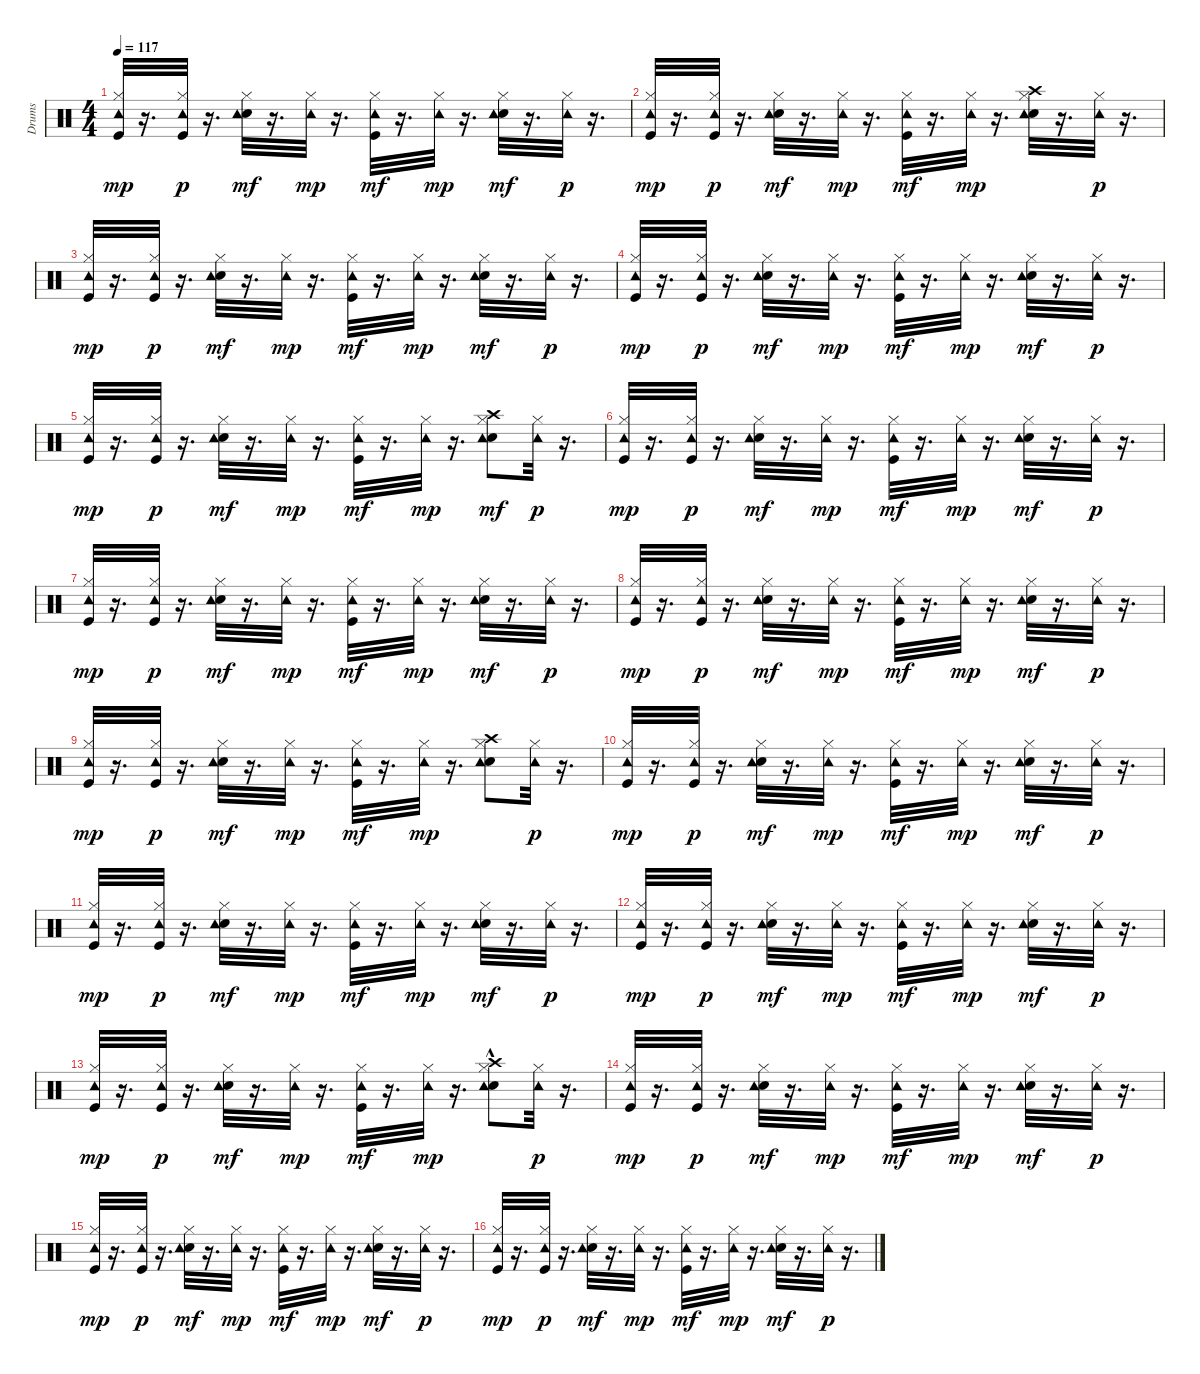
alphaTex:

\track ("Drums" "Drums") {instrument percussion}
\staff {score}
\articulation defaults
\ts (4 4)
\tempo 117
\clef neutral
\ks c
("Kick (hit)" "Hi-Hat (closed)" "Tambourine (hit)").32{dy mp} r.16{d} ("Kick (hit)" "Hi-Hat (closed)" "Tambourine (hit)").32{dy p} r.16{d} ("Electric Snare (hit)" "Hi-Hat (closed)" "Tambourine (hit)").32{dy mf} r.16{d} ("Hi-Hat (closed)" "Tambourine (hit)").32{dy mp} r.16{d} ("Kick (hit)" "Hi-Hat (closed)" "Tambourine (hit)").32{dy mf} r.16{d} ("Hi-Hat (closed)" "Tambourine (hit)").32{dy mp} r.16{d} ("Electric Snare (hit)" "Hi-Hat (closed)" "Tambourine (hit)").32{dy mf} r.16{d} ("Hi-Hat (closed)" "Tambourine (hit)").32{dy p} r.16{d} |
("Kick (hit)" "Hi-Hat (closed)" "Tambourine (hit)").32{dy mp} r.16{d} ("Kick (hit)" "Hi-Hat (closed)" "Tambourine (hit)").32{dy p} r.16{d} ("Electric Snare (hit)" "Hi-Hat (closed)" "Tambourine (hit)").32{dy mf} r.16{d} ("Hi-Hat (closed)" "Tambourine (hit)").32{dy mp} r.16{d} ("Kick (hit)" "Hi-Hat (closed)" "Tambourine (hit)").32{dy mf} r.16{d} ("Hi-Hat (closed)" "Tambourine (hit)").32{dy mp} r.16{d} ("Electric Snare (hit)" "Hi-Hat (closed)" "Tambourine (hit)" "Crash high (hit)").32 r.16{d} ("Hi-Hat (closed)" "Tambourine (hit)").32{dy p} r.16{d} |
("Kick (hit)" "Hi-Hat (closed)" "Tambourine (hit)").32{dy mp} r.16{d} ("Kick (hit)" "Hi-Hat (closed)" "Tambourine (hit)").32{dy p} r.16{d} ("Electric Snare (hit)" "Hi-Hat (closed)" "Tambourine (hit)").32{dy mf} r.16{d} ("Hi-Hat (closed)" "Tambourine (hit)").32{dy mp} r.16{d} ("Kick (hit)" "Hi-Hat (closed)" "Tambourine (hit)").32{dy mf} r.16{d} ("Hi-Hat (closed)" "Tambourine (hit)").32{dy mp} r.16{d} ("Electric Snare (hit)" "Hi-Hat (closed)" "Tambourine (hit)").32{dy mf} r.16{d} ("Hi-Hat (closed)" "Tambourine (hit)").32{dy p} r.16{d} |
("Kick (hit)" "Hi-Hat (closed)" "Tambourine (hit)").32{dy mp} r.16{d} ("Kick (hit)" "Hi-Hat (closed)" "Tambourine (hit)").32{dy p} r.16{d} ("Electric Snare (hit)" "Hi-Hat (closed)" "Tambourine (hit)").32{dy mf} r.16{d} ("Hi-Hat (closed)" "Tambourine (hit)").32{dy mp} r.16{d} ("Kick (hit)" "Hi-Hat (closed)" "Tambourine (hit)").32{dy mf} r.16{d} ("Hi-Hat (closed)" "Tambourine (hit)").32{dy mp} r.16{d} ("Electric Snare (hit)" "Hi-Hat (closed)" "Tambourine (hit)").32{dy mf} r.16{d} ("Hi-Hat (closed)" "Tambourine (hit)").32{dy p} r.16{d} |
("Kick (hit)" "Hi-Hat (closed)" "Tambourine (hit)").32{dy mp} r.16{d} ("Kick (hit)" "Hi-Hat (closed)" "Tambourine (hit)").32{dy p} r.16{d} ("Electric Snare (hit)" "Hi-Hat (closed)" "Tambourine (hit)").32{dy mf} r.16{d} ("Hi-Hat (closed)" "Tambourine (hit)").32{dy mp} r.16{d} ("Kick (hit)" "Hi-Hat (closed)" "Tambourine (hit)").32{dy mf} r.16{d} ("Hi-Hat (closed)" "Tambourine (hit)").32{dy mp} r.16{d} ("Electric Snare (hit)" "Hi-Hat (closed)" "Tambourine (hit)" "Crash high (hit)").8{dy mf} ("Hi-Hat (closed)" "Tambourine (hit)").32{dy p} r.16{d} |
("Kick (hit)" "Hi-Hat (closed)" "Tambourine (hit)").32{dy mp} r.16{d} ("Kick (hit)" "Hi-Hat (closed)" "Tambourine (hit)").32{dy p} r.16{d} ("Electric Snare (hit)" "Hi-Hat (closed)" "Tambourine (hit)").32{dy mf} r.16{d} ("Hi-Hat (closed)" "Tambourine (hit)").32{dy mp} r.16{d} ("Kick (hit)" "Hi-Hat (closed)" "Tambourine (hit)").32{dy mf} r.16{d} ("Hi-Hat (closed)" "Tambourine (hit)").32{dy mp} r.16{d} ("Electric Snare (hit)" "Hi-Hat (closed)" "Tambourine (hit)").32{dy mf} r.16{d} ("Hi-Hat (closed)" "Tambourine (hit)").32{dy p} r.16{d} |
("Kick (hit)" "Hi-Hat (closed)" "Tambourine (hit)").32{dy mp} r.16{d} ("Kick (hit)" "Hi-Hat (closed)" "Tambourine (hit)").32{dy p} r.16{d} ("Electric Snare (hit)" "Hi-Hat (closed)" "Tambourine (hit)").32{dy mf} r.16{d} ("Hi-Hat (closed)" "Tambourine (hit)").32{dy mp} r.16{d} ("Kick (hit)" "Hi-Hat (closed)" "Tambourine (hit)").32{dy mf} r.16{d} ("Hi-Hat (closed)" "Tambourine (hit)").32{dy mp} r.16{d} ("Electric Snare (hit)" "Hi-Hat (closed)" "Tambourine (hit)").32{dy mf} r.16{d} ("Hi-Hat (closed)" "Tambourine (hit)").32{dy p} r.16{d} |
("Kick (hit)" "Hi-Hat (closed)" "Tambourine (hit)").32{dy mp} r.16{d} ("Kick (hit)" "Hi-Hat (closed)" "Tambourine (hit)").32{dy p} r.16{d} ("Electric Snare (hit)" "Hi-Hat (closed)" "Tambourine (hit)").32{dy mf} r.16{d} ("Hi-Hat (closed)" "Tambourine (hit)").32{dy mp} r.16{d} ("Kick (hit)" "Hi-Hat (closed)" "Tambourine (hit)").32{dy mf} r.16{d} ("Hi-Hat (closed)" "Tambourine (hit)").32{dy mp} r.16{d} ("Electric Snare (hit)" "Hi-Hat (closed)" "Tambourine (hit)").32{dy mf} r.16{d} ("Hi-Hat (closed)" "Tambourine (hit)").32{dy p} r.16{d} |
("Kick (hit)" "Hi-Hat (closed)" "Tambourine (hit)").32{dy mp} r.16{d} ("Kick (hit)" "Hi-Hat (closed)" "Tambourine (hit)").32{dy p} r.16{d} ("Electric Snare (hit)" "Hi-Hat (closed)" "Tambourine (hit)").32{dy mf} r.16{d} ("Hi-Hat (closed)" "Tambourine (hit)").32{dy mp} r.16{d} ("Kick (hit)" "Hi-Hat (closed)" "Tambourine (hit)").32{dy mf} r.16{d} ("Hi-Hat (closed)" "Tambourine (hit)").32{dy mp} r.16{d} ("Electric Snare (hit)" "Hi-Hat (closed)" "Tambourine (hit)" "Crash high (hit)").8 ("Hi-Hat (closed)" "Tambourine (hit)").32{dy p} r.16{d} |
("Kick (hit)" "Hi-Hat (closed)" "Tambourine (hit)").32{dy mp} r.16{d} ("Kick (hit)" "Hi-Hat (closed)" "Tambourine (hit)").32{dy p} r.16{d} ("Electric Snare (hit)" "Hi-Hat (closed)" "Tambourine (hit)").32{dy mf} r.16{d} ("Hi-Hat (closed)" "Tambourine (hit)").32{dy mp} r.16{d} ("Kick (hit)" "Hi-Hat (closed)" "Tambourine (hit)").32{dy mf} r.16{d} ("Hi-Hat (closed)" "Tambourine (hit)").32{dy mp} r.16{d} ("Electric Snare (hit)" "Hi-Hat (closed)" "Tambourine (hit)").32{dy mf} r.16{d} ("Hi-Hat (closed)" "Tambourine (hit)").32{dy p} r.16{d} |
("Kick (hit)" "Hi-Hat (closed)" "Tambourine (hit)").32{dy mp} r.16{d} ("Kick (hit)" "Hi-Hat (closed)" "Tambourine (hit)").32{dy p} r.16{d} ("Electric Snare (hit)" "Hi-Hat (closed)" "Tambourine (hit)").32{dy mf} r.16{d} ("Hi-Hat (closed)" "Tambourine (hit)").32{dy mp} r.16{d} ("Kick (hit)" "Hi-Hat (closed)" "Tambourine (hit)").32{dy mf} r.16{d} ("Hi-Hat (closed)" "Tambourine (hit)").32{dy mp} r.16{d} ("Electric Snare (hit)" "Hi-Hat (closed)" "Tambourine (hit)").32{dy mf} r.16{d} ("Hi-Hat (closed)" "Tambourine (hit)").32{dy p} r.16{d} |
("Kick (hit)" "Hi-Hat (closed)" "Tambourine (hit)").32{dy mp} r.16{d} ("Kick (hit)" "Hi-Hat (closed)" "Tambourine (hit)").32{dy p} r.16{d} ("Electric Snare (hit)" "Hi-Hat (closed)" "Tambourine (hit)").32{dy mf} r.16{d} ("Hi-Hat (closed)" "Tambourine (hit)").32{dy mp} r.16{d} ("Kick (hit)" "Hi-Hat (closed)" "Tambourine (hit)").32{dy mf} r.16{d} ("Hi-Hat (closed)" "Tambourine (hit)").32{dy mp} r.16{d} ("Electric Snare (hit)" "Hi-Hat (closed)" "Tambourine (hit)").32{dy mf} r.16{d} ("Hi-Hat (closed)" "Tambourine (hit)").32{dy p} r.16{d} |
("Kick (hit)" "Hi-Hat (closed)" "Tambourine (hit)").32{dy mp} r.16{d} ("Kick (hit)" "Hi-Hat (closed)" "Tambourine (hit)").32{dy p} r.16{d} ("Electric Snare (hit)" "Hi-Hat (closed)" "Tambourine (hit)").32{dy mf} r.16{d} ("Hi-Hat (closed)" "Tambourine (hit)").32{dy mp} r.16{d} ("Kick (hit)" "Hi-Hat (closed)" "Tambourine (hit)").32{dy mf} r.16{d} ("Hi-Hat (closed)" "Tambourine (hit)").32{dy mp} r.16{d} ("Electric Snare (hit)" "Hi-Hat (closed)" "Tambourine (hit)" "Crash high (hit)"{hac}).8 ("Hi-Hat (closed)" "Tambourine (hit)").32{dy p} r.16{d} |
("Kick (hit)" "Hi-Hat (closed)" "Tambourine (hit)").32{dy mp} r.16{d} ("Kick (hit)" "Hi-Hat (closed)" "Tambourine (hit)").32{dy p} r.16{d} ("Electric Snare (hit)" "Hi-Hat (closed)" "Tambourine (hit)").32{dy mf} r.16{d} ("Hi-Hat (closed)" "Tambourine (hit)").32{dy mp} r.16{d} ("Kick (hit)" "Hi-Hat (closed)" "Tambourine (hit)").32{dy mf} r.16{d} ("Hi-Hat (closed)" "Tambourine (hit)").32{dy mp} r.16{d} ("Electric Snare (hit)" "Hi-Hat (closed)" "Tambourine (hit)").32{dy mf} r.16{d} ("Hi-Hat (closed)" "Tambourine (hit)").32{dy p} r.16{d} |
("Kick (hit)" "Hi-Hat (closed)" "Tambourine (hit)").32{dy mp} r.16{d} ("Kick (hit)" "Hi-Hat (closed)" "Tambourine (hit)").32{dy p} r.16{d} ("Electric Snare (hit)" "Hi-Hat (closed)" "Tambourine (hit)").32{dy mf} r.16{d} ("Hi-Hat (closed)" "Tambourine (hit)").32{dy mp} r.16{d} ("Kick (hit)" "Hi-Hat (closed)" "Tambourine (hit)").32{dy mf} r.16{d} ("Hi-Hat (closed)" "Tambourine (hit)").32{dy mp} r.16{d} ("Electric Snare (hit)" "Hi-Hat (closed)" "Tambourine (hit)").32{dy mf} r.16{d} ("Hi-Hat (closed)" "Tambourine (hit)").32{dy p} r.16{d} |
("Kick (hit)" "Hi-Hat (closed)" "Tambourine (hit)").32{dy mp} r.16{d} ("Kick (hit)" "Hi-Hat (closed)" "Tambourine (hit)").32{dy p} r.16{d} ("Electric Snare (hit)" "Hi-Hat (closed)" "Tambourine (hit)").32{dy mf} r.16{d} ("Hi-Hat (closed)" "Tambourine (hit)").32{dy mp} r.16{d} ("Kick (hit)" "Hi-Hat (closed)" "Tambourine (hit)").32{dy mf} r.16{d} ("Hi-Hat (closed)" "Tambourine (hit)").32{dy mp} r.16{d} ("Electric Snare (hit)" "Hi-Hat (closed)" "Tambourine (hit)").32{dy mf} r.16{d} ("Hi-Hat (closed)" "Tambourine (hit)").32{dy p} r.16{d}
